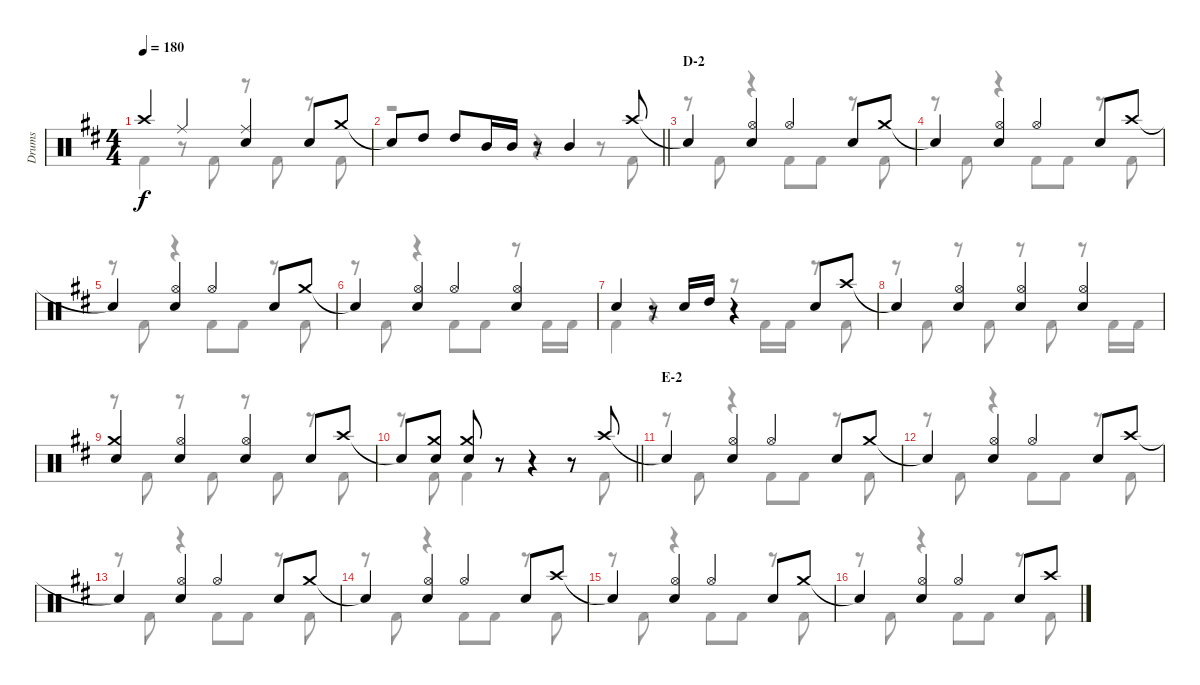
\track ("Drums" "Drums") {instrument percussion}
\staff {score}
\articulation defaults
\voice
\ts (4 4)
\tempo 180
\clef neutral
\ks d "Crash high (hit)".4{dy f} "Ride (middle)".4
("Ride (middle)" "Snare (hit) 2").4 "Snare (hit) 2".8 "Crash medium (hit)".8 |
\barLineRight lightlight "Snare (hit)"{t}.8 "High Tom (hit)".8 "High Tom (hit)".8 "Mid Tom (hit)".16 "Mid Tom (hit)".16
r.8 "Mid Tom (hit)".4 "Crash high (hit)".8 |
\section ("" "D-2")
"Snare (hit)"{t}.4 ("Hi-Hat (open)" "Snare (hit) 2").4 "Hi-Hat (open)".4 "Snare (hit) 2".8 "Crash medium (hit)".8 |
"Snare (hit)"{t}.4 ("Hi-Hat (open)" "Snare (hit) 2").4 "Hi-Hat (open)".4 "Snare (hit) 2".8 "Crash high (hit)".8 |
"Snare (hit)"{t}.4 ("Hi-Hat (open)" "Snare (hit) 2").4 "Hi-Hat (open)".4 "Snare (hit) 2".8 "Crash medium (hit)".8 |
"Snare (hit)"{t}.4 ("Hi-Hat (open)" "Snare (hit) 2").4 "Hi-Hat (open)".4 ("Hi-Hat (open)" "Snare (hit) 2").4 |
"Snare (hit) 2".4 r.8 "Snare (hit) 2".16 "High Tom (hit)".16 r.4 "Snare (hit) 2".8 "Crash high (hit)".8 |
"Snare (hit)"{t}.4 ("Hi-Hat (open)" "Snare (hit) 2").4 ("Hi-Hat (open)" "Snare (hit) 2").4 ("Hi-Hat (open)" "Snare (hit) 2").4 |
("Crash medium (hit)" "Snare (hit) 2").4 ("Hi-Hat (open)" "Snare (hit) 2").4 ("Hi-Hat (open)" "Snare (hit) 2").4 "Snare (hit) 2".8 "Crash high (hit)".8 |
\barLineRight lightlight "Snare (hit)"{t}.8
("Crash medium (hit)" "Snare (hit) 2").8 ("Crash medium (hit)" "Snare (hit) 2").8 r.8 r.4 r.8 "Crash high (hit)".8 |
\section ("" "E-2")
"Snare (hit)"{t}.4 ("Hi-Hat (open)" "Snare (hit) 2").4 "Hi-Hat (open)".4 "Snare (hit) 2".8 "Crash medium (hit)".8 |
"Snare (hit)"{t}.4 ("Hi-Hat (open)" "Snare (hit) 2").4 "Hi-Hat (open)".4 "Snare (hit) 2".8 "Crash high (hit)".8 |
"Snare (hit)"{t}.4 ("Hi-Hat (open)" "Snare (hit) 2").4 "Hi-Hat (open)".4 "Snare (hit) 2".8 "Crash medium (hit)".8 |
"Snare (hit)"{t}.4 ("Hi-Hat (open)" "Snare (hit) 2").4 "Hi-Hat (open)".4 "Snare (hit) 2".8 "Crash high (hit)".8 |
"Snare (hit)"{t}.4 ("Hi-Hat (open)" "Snare (hit) 2").4 "Hi-Hat (open)".4 "Snare (hit) 2".8 "Crash medium (hit)".8 |
"Snare (hit)"{t}.4 ("Hi-Hat (open)" "Snare (hit) 2").4 "Hi-Hat (open)".4 "Snare (hit) 2".8 "Crash high (hit)".8
\voice
\clef neutral
\ottava regular
\simile none
\ks d "Kick (hit) 2".4{dy f}
r.8 "Kick (hit) 2".8 r.8 "Kick (hit) 2".8 r.8 "Kick (hit) 2".8 |
\barLineRight lightlight
r.2 r.4 r.8 "Kick (hit) 2".8 |
r.8 "Kick (hit) 2".8 r.4 "Kick (hit) 2".8 "Kick (hit) 2".8 r.8 "Kick (hit) 2".8 |
r.8 "Kick (hit) 2".8 r.4 "Kick (hit) 2".8 "Kick (hit) 2".8 r.8 "Kick (hit) 2".8 |
r.8 "Kick (hit) 2".8 r.4 "Kick (hit) 2".8 "Kick (hit) 2".8 r.8 "Kick (hit) 2".8 |
r.8 "Kick (hit) 2".8 r.4 "Kick (hit) 2".8 "Kick (hit) 2".8 r.8 "Kick (hit) 2".16 "Kick (hit) 2".16 |
"Kick (hit) 2".4 r.4 r.8 "Kick (hit) 2".16 "Kick (hit) 2".16 r.8 "Kick (hit) 2".8 |
r.8 "Kick (hit) 2".8 r.8 "Kick (hit) 2".8 r.8 "Kick (hit) 2".8 r.8 "Kick (hit) 2".16 "Kick (hit) 2".16 |
r.8 "Kick (hit) 2".8 r.8 "Kick (hit) 2".8 r.8 "Kick (hit) 2".8 r.8 "Kick (hit) 2".8 |
\barLineRight lightlight
r.8 "Kick (hit) 2".8 "Kick (hit) 2".4 r.4 r.8 "Kick (hit) 2".8 |
r.8 "Kick (hit) 2".8 r.4 "Kick (hit) 2".8 "Kick (hit) 2".8 r.8 "Kick (hit) 2".8 |
r.8 "Kick (hit) 2".8 r.4 "Kick (hit) 2".8 "Kick (hit) 2".8 r.8 "Kick (hit) 2".8 |
r.8 "Kick (hit) 2".8 r.4 "Kick (hit) 2".8 "Kick (hit) 2".8 r.8 "Kick (hit) 2".8 |
r.8 "Kick (hit) 2".8 r.4 "Kick (hit) 2".8 "Kick (hit) 2".8 r.8 "Kick (hit) 2".8 |
r.8 "Kick (hit) 2".8 r.4 "Kick (hit) 2".8 "Kick (hit) 2".8 r.8 "Kick (hit) 2".8 |
r.8 "Kick (hit) 2".8 r.4 "Kick (hit) 2".8 "Kick (hit) 2".8 r.8 "Kick (hit) 2".8
